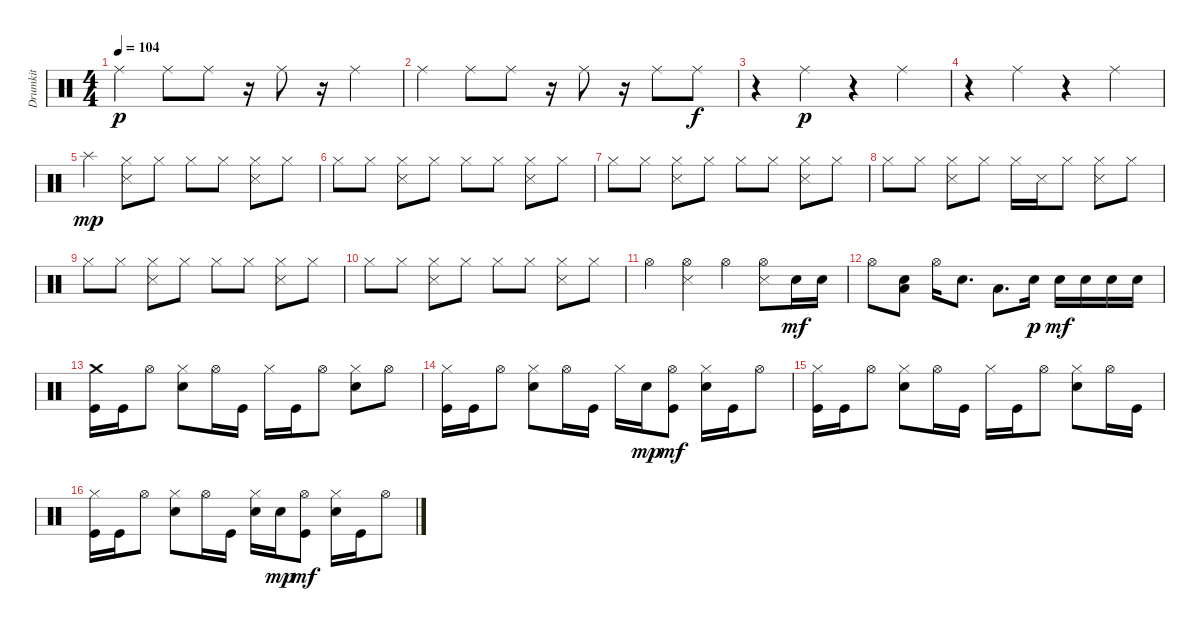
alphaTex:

\track ("Drumkit" "Drumkit") {instrument percussion}
\staff {score}
\articulation defaults
\ts (4 4)
\tempo 104
\clef neutral
\ks c "Ride (middle)".4{dy p} "Ride (middle)".8 "Ride (middle)".8
r.16 "Ride (middle)".8 r.16 "Ride (middle)".4 |
"Ride (middle)".4 "Ride (middle)".8 "Ride (middle)".8 r.16 "Ride (middle)".8 r.16 "Ride (middle)".8 "Ride (middle)".8{dy f} |
r.4 "Ride (middle)".4{dy p} r.4 "Ride (middle)".4 |
r.4 "Ride (middle)".4 r.4 "Ride (middle)".4 |
"Splash (hit)".4{dy mp} ("Snare (side stick) 3" "Hi-Hat (closed)").8 "Hi-Hat (closed)".8 "Hi-Hat (closed)".8 "Hi-Hat (closed)".8 ("Snare (side stick) 3" "Hi-Hat (closed)").8 "Hi-Hat (closed)".8 |
"Hi-Hat (closed)".8 "Hi-Hat (closed)".8 ("Snare (side stick) 3" "Hi-Hat (closed)").8 "Hi-Hat (closed)".8 "Hi-Hat (closed)".8 "Hi-Hat (closed)".8 ("Snare (side stick) 3" "Hi-Hat (closed)").8 "Hi-Hat (closed)".8 |
"Hi-Hat (closed)".8 "Hi-Hat (closed)".8 ("Snare (side stick) 3" "Hi-Hat (closed)").8 "Hi-Hat (closed)".8 "Hi-Hat (closed)".8 "Hi-Hat (closed)".8 ("Snare (side stick) 3" "Hi-Hat (closed)").8 "Hi-Hat (closed)".8 |
"Hi-Hat (closed)".8 "Hi-Hat (closed)".8 ("Snare (side stick) 3" "Hi-Hat (closed)").8 "Hi-Hat (closed)".8 "Hi-Hat (closed)".16 "Snare (side stick) 3".16 "Hi-Hat (closed)".8 ("Snare (side stick) 3" "Hi-Hat (closed)").8 "Hi-Hat (closed)".8 |
"Hi-Hat (closed)".8 "Hi-Hat (closed)".8 ("Snare (side stick) 3" "Hi-Hat (closed)").8 "Hi-Hat (closed)".8 "Hi-Hat (closed)".8 "Hi-Hat (closed)".8 ("Snare (side stick) 3" "Hi-Hat (closed)").8 "Hi-Hat (closed)".8 |
"Hi-Hat (closed)".8 "Hi-Hat (closed)".8 ("Snare (side stick) 3" "Hi-Hat (closed)").8 "Hi-Hat (closed)".8 "Hi-Hat (closed)".8 "Hi-Hat (closed)".8 ("Snare (side stick) 3" "Hi-Hat (closed)").8 "Hi-Hat (closed)".8 |
"Hi-Hat (open)".4 ("Hi-Hat (open)" "Snare (side stick) 3").4 "Hi-Hat (open)".4 ("Hi-Hat (open)" "Snare (side stick) 3").8 "Snare (hit) 2".16{dy mf} "Snare (hit) 2".16 |
"Hi-Hat (open)".8 ("Low Floor Tom (hit)" "Snare (hit) 2").8 "Hi-Hat (open)".16 "Snare (hit) 2".8{d} "Low Tom (hit)".8{d} "Snare (hit) 2".16{dy p} "Snare (hit) 2".16{dy mf} "Snare (hit) 2".16 "Snare (hit) 2".16 "Snare (hit) 2".16 |
("Crash medium (hit)" "Kick (hit)").16 "Kick (hit)".16 "Hi-Hat (open)".8 ("Snare (hit) 2" "Hi-Hat (closed)").8 "Hi-Hat (open)".16 "Kick (hit)".16 "Hi-Hat (closed)".16 "Kick (hit)".16 "Hi-Hat (open)".8 ("Snare (hit) 2" "Hi-Hat (closed)").8 "Hi-Hat (open)".8 |
("Kick (hit)" "Hi-Hat (closed)").16 "Kick (hit)".16 "Hi-Hat (open)".8 ("Snare (hit) 2" "Hi-Hat (closed)").8 "Hi-Hat (open)".16 "Kick (hit)".16 "Hi-Hat (closed)".16 "Snare (hit) 2".16{dy mp} ("Hi-Hat (open)" "Kick (hit)").8{dy mf} ("Snare (hit) 2" "Hi-Hat (closed)").16 "Kick (hit)".16 "Hi-Hat (open)".8 |
("Kick (hit)" "Hi-Hat (closed)").16 "Kick (hit)".16 "Hi-Hat (open)".8 ("Snare (hit) 2" "Hi-Hat (closed)").8 "Hi-Hat (open)".16 "Kick (hit)".16 "Hi-Hat (closed)".16 "Kick (hit)".16 "Hi-Hat (open)".8 ("Snare (hit) 2" "Hi-Hat (closed)").8 "Hi-Hat (open)".16 "Kick (hit)".16 |
("Kick (hit)" "Hi-Hat (closed)").16 "Kick (hit)".16 "Hi-Hat (open)".8 ("Snare (hit) 2" "Hi-Hat (closed)").8 "Hi-Hat (open)".16 "Kick (hit)".16 ("Hi-Hat (closed)" "Snare (hit) 2").16 "Snare (hit) 2".16{dy mp} ("Hi-Hat (open)" "Kick (hit)").8{dy mf} ("Snare (hit) 2" "Hi-Hat (closed)").16 "Kick (hit)".16 "Hi-Hat (open)".8
